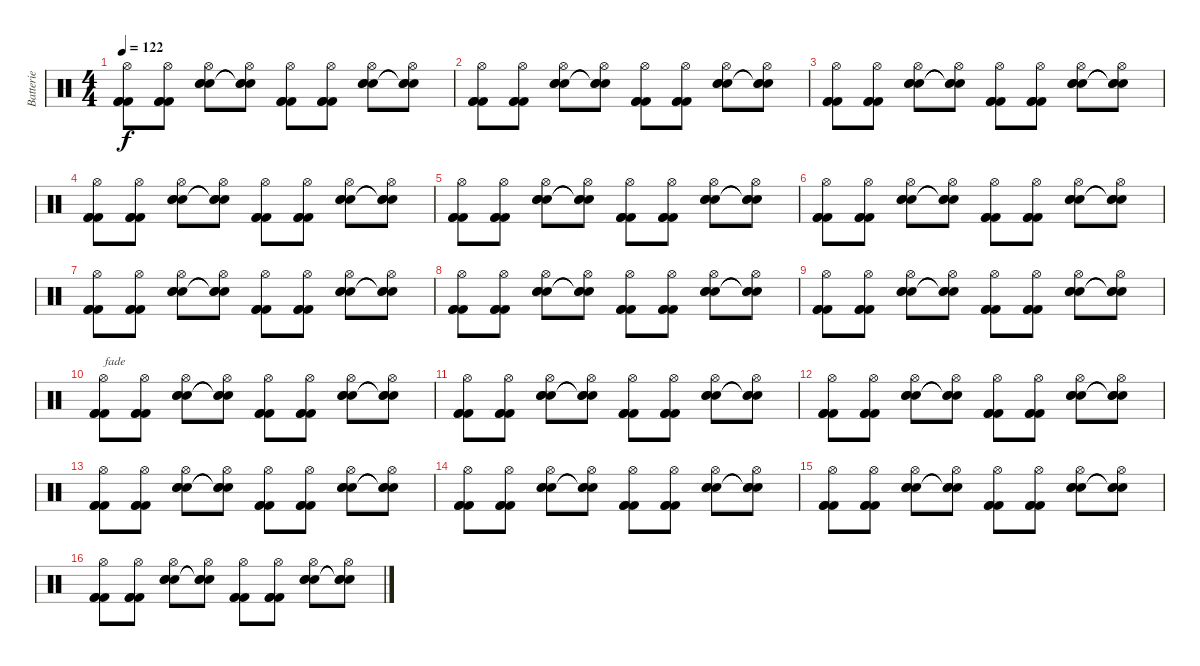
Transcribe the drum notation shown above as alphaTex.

\track ("Batterie" "Batterie") {instrument percussion}
\staff {score}
\articulation defaults
\ts (4 4)
\tempo 122
\clef neutral
\ks c
("Hi-Hat (open)" "Kick (hit) 2" "Kick (hit) 2" "Kick (hit) 2").8{dy f} ("Hi-Hat (open)" "Kick (hit) 2" "Kick (hit) 2" "Kick (hit) 2").8 ("Hi-Hat (open)" "Snare (hit) 2" "Snare (hit) 2" "Snare (hit) 2").8 ("Hi-Hat (open)" "Snare (hit)"{t} "Snare (hit)"{t} "Snare (hit)"{t}).8 ("Hi-Hat (open)" "Kick (hit) 2" "Kick (hit) 2" "Kick (hit) 2").8 ("Hi-Hat (open)" "Kick (hit) 2" "Kick (hit) 2" "Kick (hit) 2").8 ("Hi-Hat (open)" "Snare (hit) 2" "Snare (hit) 2" "Snare (hit) 2").8 ("Hi-Hat (open)" "Snare (hit)"{t} "Snare (hit)"{t} "Snare (hit)"{t}).8 |
("Hi-Hat (open)" "Kick (hit) 2" "Kick (hit) 2" "Kick (hit) 2").8 ("Hi-Hat (open)" "Kick (hit) 2" "Kick (hit) 2" "Kick (hit) 2").8 ("Hi-Hat (open)" "Snare (hit) 2" "Snare (hit) 2" "Snare (hit) 2").8 ("Hi-Hat (open)" "Snare (hit)"{t} "Snare (hit)"{t} "Snare (hit)"{t}).8 ("Hi-Hat (open)" "Kick (hit) 2" "Kick (hit) 2" "Kick (hit) 2").8 ("Hi-Hat (open)" "Kick (hit) 2" "Kick (hit) 2" "Kick (hit) 2").8 ("Hi-Hat (open)" "Snare (hit) 2" "Snare (hit) 2" "Snare (hit) 2").8 ("Hi-Hat (open)" "Snare (hit)"{t} "Snare (hit)"{t} "Snare (hit)"{t}).8 |
("Hi-Hat (open)" "Kick (hit) 2" "Kick (hit) 2" "Kick (hit) 2").8 ("Hi-Hat (open)" "Kick (hit) 2" "Kick (hit) 2" "Kick (hit) 2").8 ("Hi-Hat (open)" "Snare (hit) 2" "Snare (hit) 2" "Snare (hit) 2").8 ("Hi-Hat (open)" "Snare (hit)"{t} "Snare (hit)"{t} "Snare (hit)"{t}).8 ("Hi-Hat (open)" "Kick (hit) 2" "Kick (hit) 2" "Kick (hit) 2").8 ("Hi-Hat (open)" "Kick (hit) 2" "Kick (hit) 2" "Kick (hit) 2").8 ("Hi-Hat (open)" "Snare (hit) 2" "Snare (hit) 2" "Snare (hit) 2").8 ("Hi-Hat (open)" "Snare (hit)"{t} "Snare (hit)"{t} "Snare (hit)"{t}).8 |
("Hi-Hat (open)" "Kick (hit) 2" "Kick (hit) 2" "Kick (hit) 2").8 ("Hi-Hat (open)" "Kick (hit) 2" "Kick (hit) 2" "Kick (hit) 2").8 ("Hi-Hat (open)" "Snare (hit) 2" "Snare (hit) 2" "Snare (hit) 2").8 ("Hi-Hat (open)" "Snare (hit)"{t} "Snare (hit)"{t} "Snare (hit)"{t}).8 ("Hi-Hat (open)" "Kick (hit) 2" "Kick (hit) 2" "Kick (hit) 2").8 ("Hi-Hat (open)" "Kick (hit) 2" "Kick (hit) 2" "Kick (hit) 2").8 ("Hi-Hat (open)" "Snare (hit) 2" "Snare (hit) 2" "Snare (hit) 2").8 ("Hi-Hat (open)" "Snare (hit)"{t} "Snare (hit)"{t} "Snare (hit)"{t}).8 |
("Hi-Hat (open)" "Kick (hit) 2" "Kick (hit) 2" "Kick (hit) 2").8 ("Hi-Hat (open)" "Kick (hit) 2" "Kick (hit) 2" "Kick (hit) 2").8 ("Hi-Hat (open)" "Snare (hit) 2" "Snare (hit) 2" "Snare (hit) 2").8 ("Hi-Hat (open)" "Snare (hit)"{t} "Snare (hit)"{t} "Snare (hit)"{t}).8 ("Hi-Hat (open)" "Kick (hit) 2" "Kick (hit) 2" "Kick (hit) 2").8 ("Hi-Hat (open)" "Kick (hit) 2" "Kick (hit) 2" "Kick (hit) 2").8 ("Hi-Hat (open)" "Snare (hit) 2" "Snare (hit) 2" "Snare (hit) 2").8 ("Hi-Hat (open)" "Snare (hit)"{t} "Snare (hit)"{t} "Snare (hit)"{t}).8 |
("Hi-Hat (open)" "Kick (hit) 2" "Kick (hit) 2" "Kick (hit) 2").8 ("Hi-Hat (open)" "Kick (hit) 2" "Kick (hit) 2" "Kick (hit) 2").8 ("Hi-Hat (open)" "Snare (hit) 2" "Snare (hit) 2" "Snare (hit) 2").8 ("Hi-Hat (open)" "Snare (hit)"{t} "Snare (hit)"{t} "Snare (hit)"{t}).8 ("Hi-Hat (open)" "Kick (hit) 2" "Kick (hit) 2" "Kick (hit) 2").8 ("Hi-Hat (open)" "Kick (hit) 2" "Kick (hit) 2" "Kick (hit) 2").8 ("Hi-Hat (open)" "Snare (hit) 2" "Snare (hit) 2" "Snare (hit) 2").8 ("Hi-Hat (open)" "Snare (hit)"{t} "Snare (hit)"{t} "Snare (hit)"{t}).8 |
("Hi-Hat (open)" "Kick (hit) 2" "Kick (hit) 2" "Kick (hit) 2").8 ("Hi-Hat (open)" "Kick (hit) 2" "Kick (hit) 2" "Kick (hit) 2").8 ("Hi-Hat (open)" "Snare (hit) 2" "Snare (hit) 2" "Snare (hit) 2").8 ("Hi-Hat (open)" "Snare (hit)"{t} "Snare (hit)"{t} "Snare (hit)"{t}).8 ("Hi-Hat (open)" "Kick (hit) 2" "Kick (hit) 2" "Kick (hit) 2").8 ("Hi-Hat (open)" "Kick (hit) 2" "Kick (hit) 2" "Kick (hit) 2").8 ("Hi-Hat (open)" "Snare (hit) 2" "Snare (hit) 2" "Snare (hit) 2").8 ("Hi-Hat (open)" "Snare (hit)"{t} "Snare (hit)"{t} "Snare (hit)"{t}).8 |
("Hi-Hat (open)" "Kick (hit) 2" "Kick (hit) 2" "Kick (hit) 2").8 ("Hi-Hat (open)" "Kick (hit) 2" "Kick (hit) 2" "Kick (hit) 2").8 ("Hi-Hat (open)" "Snare (hit) 2" "Snare (hit) 2" "Snare (hit) 2").8 ("Hi-Hat (open)" "Snare (hit)"{t} "Snare (hit)"{t} "Snare (hit)"{t}).8 ("Hi-Hat (open)" "Kick (hit) 2" "Kick (hit) 2" "Kick (hit) 2").8 ("Hi-Hat (open)" "Kick (hit) 2" "Kick (hit) 2" "Kick (hit) 2").8 ("Hi-Hat (open)" "Snare (hit) 2" "Snare (hit) 2" "Snare (hit) 2").8 ("Hi-Hat (open)" "Snare (hit)"{t} "Snare (hit)"{t} "Snare (hit)"{t}).8 |
("Hi-Hat (open)" "Kick (hit) 2" "Kick (hit) 2" "Kick (hit) 2").8 ("Hi-Hat (open)" "Kick (hit) 2" "Kick (hit) 2" "Kick (hit) 2").8 ("Hi-Hat (open)" "Snare (hit) 2" "Snare (hit) 2" "Snare (hit) 2").8 ("Hi-Hat (open)" "Snare (hit)"{t} "Snare (hit)"{t} "Snare (hit)"{t}).8 ("Hi-Hat (open)" "Kick (hit) 2" "Kick (hit) 2" "Kick (hit) 2").8 ("Hi-Hat (open)" "Kick (hit) 2" "Kick (hit) 2" "Kick (hit) 2").8 ("Hi-Hat (open)" "Snare (hit) 2" "Snare (hit) 2" "Snare (hit) 2").8 ("Hi-Hat (open)" "Snare (hit)"{t} "Snare (hit)"{t} "Snare (hit)"{t}).8 |
("Hi-Hat (open)" "Kick (hit) 2" "Kick (hit) 2" "Kick (hit) 2").8{txt "fade" volume 9} ("Hi-Hat (open)" "Kick (hit) 2" "Kick (hit) 2" "Kick (hit) 2").8 ("Hi-Hat (open)" "Snare (hit) 2" "Snare (hit) 2" "Snare (hit) 2").8 ("Hi-Hat (open)" "Snare (hit)"{t} "Snare (hit)"{t} "Snare (hit)"{t}).8 ("Hi-Hat (open)" "Kick (hit) 2" "Kick (hit) 2" "Kick (hit) 2").8 ("Hi-Hat (open)" "Kick (hit) 2" "Kick (hit) 2" "Kick (hit) 2").8 ("Hi-Hat (open)" "Snare (hit) 2" "Snare (hit) 2" "Snare (hit) 2").8 ("Hi-Hat (open)" "Snare (hit)"{t} "Snare (hit)"{t} "Snare (hit)"{t}).8 |
("Hi-Hat (open)" "Kick (hit) 2" "Kick (hit) 2" "Kick (hit) 2").8 ("Hi-Hat (open)" "Kick (hit) 2" "Kick (hit) 2" "Kick (hit) 2").8 ("Hi-Hat (open)" "Snare (hit) 2" "Snare (hit) 2" "Snare (hit) 2").8 ("Hi-Hat (open)" "Snare (hit)"{t} "Snare (hit)"{t} "Snare (hit)"{t}).8 ("Hi-Hat (open)" "Kick (hit) 2" "Kick (hit) 2" "Kick (hit) 2").8 ("Hi-Hat (open)" "Kick (hit) 2" "Kick (hit) 2" "Kick (hit) 2").8 ("Hi-Hat (open)" "Snare (hit) 2" "Snare (hit) 2" "Snare (hit) 2").8 ("Hi-Hat (open)" "Snare (hit)"{t} "Snare (hit)"{t} "Snare (hit)"{t}).8 |
("Hi-Hat (open)" "Kick (hit) 2" "Kick (hit) 2" "Kick (hit) 2").8 ("Hi-Hat (open)" "Kick (hit) 2" "Kick (hit) 2" "Kick (hit) 2").8 ("Hi-Hat (open)" "Snare (hit) 2" "Snare (hit) 2" "Snare (hit) 2").8 ("Hi-Hat (open)" "Snare (hit)"{t} "Snare (hit)"{t} "Snare (hit)"{t}).8 ("Hi-Hat (open)" "Kick (hit) 2" "Kick (hit) 2" "Kick (hit) 2").8 ("Hi-Hat (open)" "Kick (hit) 2" "Kick (hit) 2" "Kick (hit) 2").8 ("Hi-Hat (open)" "Snare (hit) 2" "Snare (hit) 2" "Snare (hit) 2").8 ("Hi-Hat (open)" "Snare (hit)"{t} "Snare (hit)"{t} "Snare (hit)"{t}).8 |
("Hi-Hat (open)" "Kick (hit) 2" "Kick (hit) 2" "Kick (hit) 2").8 ("Hi-Hat (open)" "Kick (hit) 2" "Kick (hit) 2" "Kick (hit) 2").8 ("Hi-Hat (open)" "Snare (hit) 2" "Snare (hit) 2" "Snare (hit) 2").8 ("Hi-Hat (open)" "Snare (hit)"{t} "Snare (hit)"{t} "Snare (hit)"{t}).8 ("Hi-Hat (open)" "Kick (hit) 2" "Kick (hit) 2" "Kick (hit) 2").8 ("Hi-Hat (open)" "Kick (hit) 2" "Kick (hit) 2" "Kick (hit) 2").8 ("Hi-Hat (open)" "Snare (hit) 2" "Snare (hit) 2" "Snare (hit) 2").8 ("Hi-Hat (open)" "Snare (hit)"{t} "Snare (hit)"{t} "Snare (hit)"{t}).8 |
("Hi-Hat (open)" "Kick (hit) 2" "Kick (hit) 2" "Kick (hit) 2").8 ("Hi-Hat (open)" "Kick (hit) 2" "Kick (hit) 2" "Kick (hit) 2").8 ("Hi-Hat (open)" "Snare (hit) 2" "Snare (hit) 2" "Snare (hit) 2").8 ("Hi-Hat (open)" "Snare (hit)"{t} "Snare (hit)"{t} "Snare (hit)"{t}).8 ("Hi-Hat (open)" "Kick (hit) 2" "Kick (hit) 2" "Kick (hit) 2").8 ("Hi-Hat (open)" "Kick (hit) 2" "Kick (hit) 2" "Kick (hit) 2").8 ("Hi-Hat (open)" "Snare (hit) 2" "Snare (hit) 2" "Snare (hit) 2").8 ("Hi-Hat (open)" "Snare (hit)"{t} "Snare (hit)"{t} "Snare (hit)"{t}).8 |
("Hi-Hat (open)" "Kick (hit) 2" "Kick (hit) 2" "Kick (hit) 2").8 ("Hi-Hat (open)" "Kick (hit) 2" "Kick (hit) 2" "Kick (hit) 2").8 ("Hi-Hat (open)" "Snare (hit) 2" "Snare (hit) 2" "Snare (hit) 2").8 ("Hi-Hat (open)" "Snare (hit)"{t} "Snare (hit)"{t} "Snare (hit)"{t}).8 ("Hi-Hat (open)" "Kick (hit) 2" "Kick (hit) 2" "Kick (hit) 2").8 ("Hi-Hat (open)" "Kick (hit) 2" "Kick (hit) 2" "Kick (hit) 2").8 ("Hi-Hat (open)" "Snare (hit) 2" "Snare (hit) 2" "Snare (hit) 2").8 ("Hi-Hat (open)" "Snare (hit)"{t} "Snare (hit)"{t} "Snare (hit)"{t}).8 |
("Hi-Hat (open)" "Kick (hit) 2" "Kick (hit) 2" "Kick (hit) 2").8{volume 5} ("Hi-Hat (open)" "Kick (hit) 2" "Kick (hit) 2" "Kick (hit) 2").8 ("Hi-Hat (open)" "Snare (hit) 2" "Snare (hit) 2" "Snare (hit) 2").8 ("Hi-Hat (open)" "Snare (hit)"{t} "Snare (hit)"{t} "Snare (hit)"{t}).8 ("Hi-Hat (open)" "Kick (hit) 2" "Kick (hit) 2" "Kick (hit) 2").8 ("Hi-Hat (open)" "Kick (hit) 2" "Kick (hit) 2" "Kick (hit) 2").8 ("Hi-Hat (open)" "Snare (hit) 2" "Snare (hit) 2" "Snare (hit) 2").8 ("Hi-Hat (open)" "Snare (hit)"{t} "Snare (hit)"{t} "Snare (hit)"{t}).8
